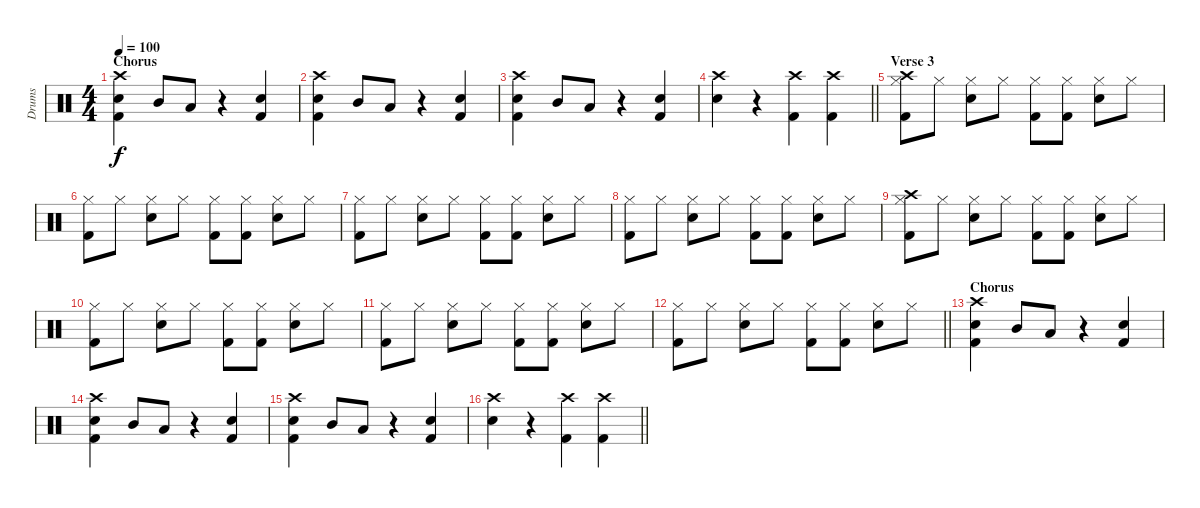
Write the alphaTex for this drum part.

\track ("Drums" "Drums") {instrument percussion}
\staff {score}
\articulation defaults
\ts (4 4)
\section ("" "Chorus")
\tempo 100
\clef neutral
\ks c
("Crash high (hit)" "Snare (hit) 2" "Kick (hit) 2").4{dy f} "Mid Tom (hit)".8 "Low Tom (hit)".8 r.4 ("Snare (hit) 2" "Kick (hit) 2").4 |
("Crash high (hit)" "Snare (hit) 2" "Kick (hit) 2").4 "Mid Tom (hit)".8 "Low Tom (hit)".8 r.4 ("Snare (hit) 2" "Kick (hit) 2").4 |
("Crash high (hit)" "Snare (hit) 2" "Kick (hit) 2").4 "Mid Tom (hit)".8 "Low Tom (hit)".8 r.4 ("Snare (hit) 2" "Kick (hit) 2").4 |
\barLineRight lightlight
("Crash high (hit)" "Snare (hit) 2").4 r.4 ("Crash high (hit)" "Kick (hit) 2").4 ("Crash high (hit)" "Kick (hit) 2").4 |
\section ("" "Verse 3")
("Crash high (hit)" "Hi-Hat (closed)" "Kick (hit) 2").8 "Hi-Hat (closed)".8 ("Hi-Hat (closed)" "Snare (hit) 2").8 "Hi-Hat (closed)".8 ("Hi-Hat (closed)" "Kick (hit) 2").8 ("Hi-Hat (closed)" "Kick (hit) 2").8 ("Hi-Hat (closed)" "Snare (hit) 2").8 "Hi-Hat (closed)".8 |
("Hi-Hat (closed)" "Kick (hit) 2").8 "Hi-Hat (closed)".8 ("Hi-Hat (closed)" "Snare (hit) 2").8 "Hi-Hat (closed)".8 ("Hi-Hat (closed)" "Kick (hit) 2").8 ("Hi-Hat (closed)" "Kick (hit) 2").8 ("Hi-Hat (closed)" "Snare (hit) 2").8 "Hi-Hat (closed)".8 |
("Hi-Hat (closed)" "Kick (hit) 2").8 "Hi-Hat (closed)".8 ("Hi-Hat (closed)" "Snare (hit) 2").8 "Hi-Hat (closed)".8 ("Hi-Hat (closed)" "Kick (hit) 2").8 ("Hi-Hat (closed)" "Kick (hit) 2").8 ("Hi-Hat (closed)" "Snare (hit) 2").8 "Hi-Hat (closed)".8 |
("Hi-Hat (closed)" "Kick (hit) 2").8 "Hi-Hat (closed)".8 ("Hi-Hat (closed)" "Snare (hit) 2").8 "Hi-Hat (closed)".8 ("Hi-Hat (closed)" "Kick (hit) 2").8 ("Hi-Hat (closed)" "Kick (hit) 2").8 ("Hi-Hat (closed)" "Snare (hit) 2").8 "Hi-Hat (closed)".8 |
("Crash high (hit)" "Hi-Hat (closed)" "Kick (hit) 2").8 "Hi-Hat (closed)".8 ("Hi-Hat (closed)" "Snare (hit) 2").8 "Hi-Hat (closed)".8 ("Hi-Hat (closed)" "Kick (hit) 2").8 ("Hi-Hat (closed)" "Kick (hit) 2").8 ("Hi-Hat (closed)" "Snare (hit) 2").8 "Hi-Hat (closed)".8 |
("Hi-Hat (closed)" "Kick (hit) 2").8 "Hi-Hat (closed)".8 ("Hi-Hat (closed)" "Snare (hit) 2").8 "Hi-Hat (closed)".8 ("Hi-Hat (closed)" "Kick (hit) 2").8 ("Hi-Hat (closed)" "Kick (hit) 2").8 ("Hi-Hat (closed)" "Snare (hit) 2").8 "Hi-Hat (closed)".8 |
("Hi-Hat (closed)" "Kick (hit) 2").8 "Hi-Hat (closed)".8 ("Hi-Hat (closed)" "Snare (hit) 2").8 "Hi-Hat (closed)".8 ("Hi-Hat (closed)" "Kick (hit) 2").8 ("Hi-Hat (closed)" "Kick (hit) 2").8 ("Hi-Hat (closed)" "Snare (hit) 2").8 "Hi-Hat (closed)".8 |
\barLineRight lightlight
("Hi-Hat (closed)" "Kick (hit) 2").8 "Hi-Hat (closed)".8 ("Hi-Hat (closed)" "Snare (hit) 2").8 "Hi-Hat (closed)".8 ("Hi-Hat (closed)" "Kick (hit) 2").8 ("Hi-Hat (closed)" "Kick (hit) 2").8 ("Hi-Hat (closed)" "Snare (hit) 2").8 "Hi-Hat (closed)".8 |
\section ("" "Chorus")
("Crash high (hit)" "Snare (hit) 2" "Kick (hit) 2").4 "Mid Tom (hit)".8 "Low Tom (hit)".8 r.4 ("Snare (hit) 2" "Kick (hit) 2").4 |
("Crash high (hit)" "Snare (hit) 2" "Kick (hit) 2").4 "Mid Tom (hit)".8 "Low Tom (hit)".8 r.4 ("Snare (hit) 2" "Kick (hit) 2").4 |
("Crash high (hit)" "Snare (hit) 2" "Kick (hit) 2").4 "Mid Tom (hit)".8 "Low Tom (hit)".8 r.4 ("Snare (hit) 2" "Kick (hit) 2").4 |
\barLineRight lightlight
("Crash high (hit)" "Snare (hit) 2").4 r.4 ("Crash high (hit)" "Kick (hit) 2").4 ("Crash high (hit)" "Kick (hit) 2").4
